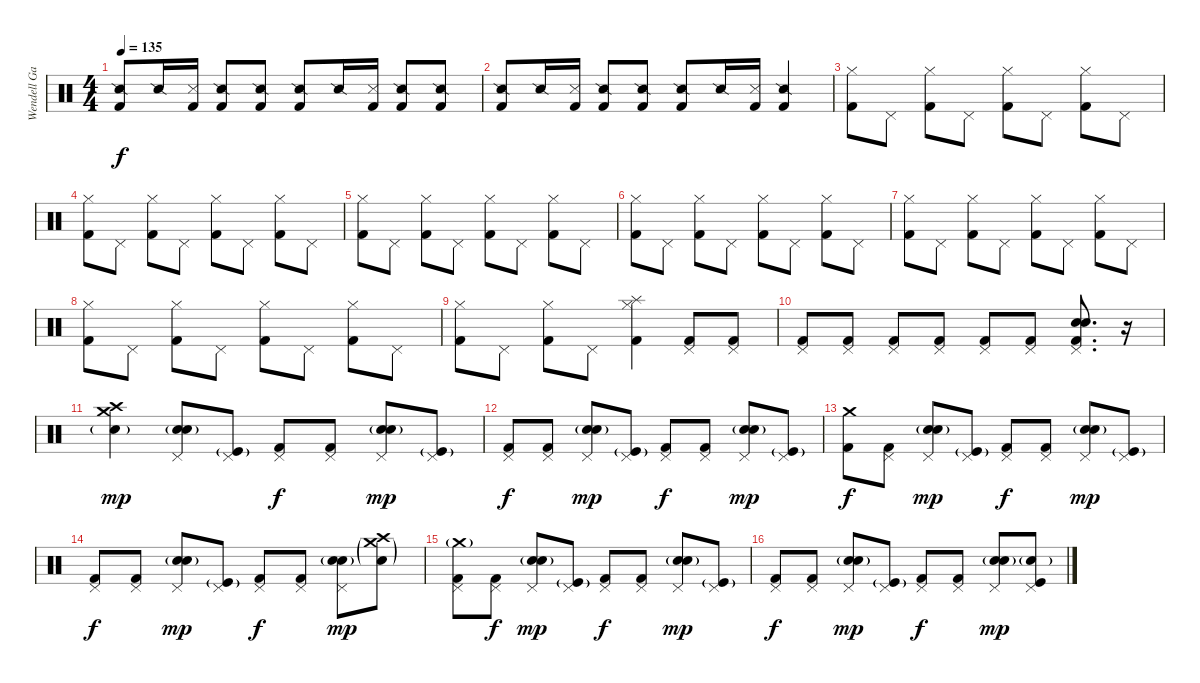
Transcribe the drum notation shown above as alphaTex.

\track ("Wendell Garcia" "Wendell Ga") {instrument percussion}
\staff {score}
\articulation defaults
\ts (4 4)
\tempo 135
\clef neutral
\ks c
("Kick (hit) 2" "Snare (side stick) 2").8{dy f} "Snare (side stick) 2".16 ("Kick (hit) 2" "Snare (side stick) 3").16 ("Kick (hit) 2" "Snare (side stick) 2").8 ("Kick (hit) 2" "Snare (side stick) 2").8 ("Kick (hit) 2" "Snare (side stick) 2").8 "Snare (side stick) 2".16 ("Kick (hit) 2" "Snare (side stick) 3").16 ("Kick (hit) 2" "Snare (side stick) 2").8 ("Kick (hit) 2" "Snare (side stick) 2").8 |
("Kick (hit) 2" "Snare (side stick) 2").8 "Snare (side stick) 2".16 ("Kick (hit) 2" "Snare (side stick) 3").16 ("Kick (hit) 2" "Snare (side stick) 2").8 ("Kick (hit) 2" "Snare (side stick) 2").8 ("Kick (hit) 2" "Snare (side stick) 2").8 "Snare (side stick) 2".16 ("Kick (hit) 2" "Snare (side stick) 3").16 ("Kick (hit) 2" "Snare (side stick) 2").4 |
("Hi-Hat (closed)" "Kick (hit) 2").8 "Pedal Hi-Hat (hit)".8 ("Hi-Hat (closed)" "Kick (hit) 2").8 "Pedal Hi-Hat (hit)".8 ("Hi-Hat (closed)" "Kick (hit) 2").8 "Pedal Hi-Hat (hit)".8 ("Hi-Hat (closed)" "Kick (hit) 2").8 "Pedal Hi-Hat (hit)".8 |
("Hi-Hat (closed)" "Kick (hit) 2").8 "Pedal Hi-Hat (hit)".8 ("Hi-Hat (closed)" "Kick (hit) 2").8 "Pedal Hi-Hat (hit)".8 ("Hi-Hat (closed)" "Kick (hit) 2").8 "Pedal Hi-Hat (hit)".8 ("Hi-Hat (closed)" "Kick (hit) 2").8 "Pedal Hi-Hat (hit)".8 |
("Hi-Hat (closed)" "Kick (hit) 2").8 "Pedal Hi-Hat (hit)".8 ("Hi-Hat (closed)" "Kick (hit) 2").8 "Pedal Hi-Hat (hit)".8 ("Hi-Hat (closed)" "Kick (hit) 2").8 "Pedal Hi-Hat (hit)".8 ("Hi-Hat (closed)" "Kick (hit) 2").8 "Pedal Hi-Hat (hit)".8 |
("Hi-Hat (closed)" "Kick (hit) 2").8 "Pedal Hi-Hat (hit)".8 ("Hi-Hat (closed)" "Kick (hit) 2").8 "Pedal Hi-Hat (hit)".8 ("Hi-Hat (closed)" "Kick (hit) 2").8 "Pedal Hi-Hat (hit)".8 ("Hi-Hat (closed)" "Kick (hit) 2").8 "Pedal Hi-Hat (hit)".8 |
("Hi-Hat (closed)" "Kick (hit) 2").8 "Pedal Hi-Hat (hit)".8 ("Hi-Hat (closed)" "Kick (hit) 2").8 "Pedal Hi-Hat (hit)".8 ("Hi-Hat (closed)" "Kick (hit) 2").8 "Pedal Hi-Hat (hit)".8 ("Hi-Hat (closed)" "Kick (hit) 2").8 "Pedal Hi-Hat (hit)".8 |
("Hi-Hat (closed)" "Kick (hit) 2").8 "Pedal Hi-Hat (hit)".8 ("Hi-Hat (closed)" "Kick (hit) 2").8 "Pedal Hi-Hat (hit)".8 ("Hi-Hat (closed)" "Kick (hit) 2").8 "Pedal Hi-Hat (hit)".8 ("Hi-Hat (closed)" "Kick (hit) 2").8 "Pedal Hi-Hat (hit)".8 |
("Hi-Hat (closed)" "Kick (hit) 2").8 "Pedal Hi-Hat (hit)".8 ("Hi-Hat (closed)" "Kick (hit) 2").8 "Pedal Hi-Hat (hit)".8 ("Hi-Hat (closed)" "Kick (hit) 2" "Splash (hit)").4 ("Pedal Hi-Hat (hit)" "Kick (hit) 2").8 ("Pedal Hi-Hat (hit)" "Kick (hit) 2").8 |
("Pedal Hi-Hat (hit)" "Kick (hit) 2").8 ("Pedal Hi-Hat (hit)" "Kick (hit) 2").8 ("Pedal Hi-Hat (hit)" "Kick (hit) 2").8 ("Pedal Hi-Hat (hit)" "Kick (hit) 2").8 ("Pedal Hi-Hat (hit)" "Kick (hit) 2").8 ("Pedal Hi-Hat (hit)" "Kick (hit) 2").8 ("Pedal Hi-Hat (hit)" "Electric Snare (hit)" "Electric Snare (hit)" "Kick (hit) 2").8{d} r.16 |
("Crash medium (hit)" "Crash high (hit)" "Electric Snare (hit)"{g}).4{dy mp} ("Pedal Hi-Hat (hit)" "Electric Snare (hit)" "Snare (hit) 2"{g}).8 ("Pedal Hi-Hat (hit)" "Kick (hit)"{g}).8 ("Pedal Hi-Hat (hit)" "Kick (hit) 2").8{dy f} ("Pedal Hi-Hat (hit)" "Kick (hit) 2").8 ("Pedal Hi-Hat (hit)" "Electric Snare (hit)" "Snare (hit) 2"{g}).8{dy mp} ("Pedal Hi-Hat (hit)" "Kick (hit)"{g}).8 |
("Pedal Hi-Hat (hit)" "Kick (hit) 2").8{dy f} ("Pedal Hi-Hat (hit)" "Kick (hit) 2").8 ("Pedal Hi-Hat (hit)" "Electric Snare (hit)" "Snare (hit) 2"{g}).8{dy mp} ("Pedal Hi-Hat (hit)" "Kick (hit)"{g}).8 ("Pedal Hi-Hat (hit)" "Kick (hit) 2").8{dy f} ("Pedal Hi-Hat (hit)" "Kick (hit) 2").8 ("Pedal Hi-Hat (hit)" "Electric Snare (hit)" "Snare (hit) 2"{g}).8{dy mp} ("Pedal Hi-Hat (hit)" "Kick (hit)"{g}).8 |
("Crash medium (hit)" "Kick (hit) 2").8{dy f} ("Pedal Hi-Hat (hit)" "Kick (hit) 2").8 ("Pedal Hi-Hat (hit)" "Electric Snare (hit)" "Snare (hit) 2"{g}).8{dy mp} ("Pedal Hi-Hat (hit)" "Kick (hit)"{g}).8 ("Pedal Hi-Hat (hit)" "Kick (hit) 2").8{dy f} ("Pedal Hi-Hat (hit)" "Kick (hit) 2").8 ("Pedal Hi-Hat (hit)" "Electric Snare (hit)" "Snare (hit) 2"{g}).8{dy mp} ("Pedal Hi-Hat (hit)" "Kick (hit)"{g}).8 |
("Pedal Hi-Hat (hit)" "Kick (hit) 2").8{dy f} ("Pedal Hi-Hat (hit)" "Kick (hit) 2").8 ("Pedal Hi-Hat (hit)" "Electric Snare (hit)" "Snare (hit) 2"{g}).8{dy mp} ("Pedal Hi-Hat (hit)" "Kick (hit)"{g}).8 ("Pedal Hi-Hat (hit)" "Kick (hit) 2").8{dy f} ("Pedal Hi-Hat (hit)" "Kick (hit) 2").8 ("Pedal Hi-Hat (hit)" "Electric Snare (hit)" "Snare (hit) 2"{g}).8{dy mp} ("Crash high (hit)" "Crash medium (hit)"{g} "Electric Snare (hit)"{g}).8 |
("Pedal Hi-Hat (hit)" "Kick (hit) 2" "Crash medium (hit)"{g}).8 ("Pedal Hi-Hat (hit)" "Kick (hit) 2").8{dy f} ("Pedal Hi-Hat (hit)" "Electric Snare (hit)" "Snare (hit) 2"{g}).8{dy mp} ("Pedal Hi-Hat (hit)" "Kick (hit)"{g}).8 ("Pedal Hi-Hat (hit)" "Kick (hit) 2").8{dy f} ("Pedal Hi-Hat (hit)" "Kick (hit) 2").8 ("Pedal Hi-Hat (hit)" "Electric Snare (hit)" "Snare (hit) 2"{g}).8{dy mp} ("Pedal Hi-Hat (hit)" "Kick (hit)"{g}).8 |
("Pedal Hi-Hat (hit)" "Kick (hit) 2").8{dy f} ("Pedal Hi-Hat (hit)" "Kick (hit) 2").8 ("Pedal Hi-Hat (hit)" "Electric Snare (hit)" "Snare (hit) 2"{g}).8{dy mp} ("Pedal Hi-Hat (hit)" "Kick (hit)"{g}).8 ("Pedal Hi-Hat (hit)" "Kick (hit) 2").8{dy f} ("Pedal Hi-Hat (hit)" "Kick (hit) 2").8 ("Pedal Hi-Hat (hit)" "Electric Snare (hit)" "Snare (hit) 2"{g}).8{dy mp} ("Pedal Hi-Hat (hit)" "Kick (hit)" "Electric Snare (hit)"{g}).8
